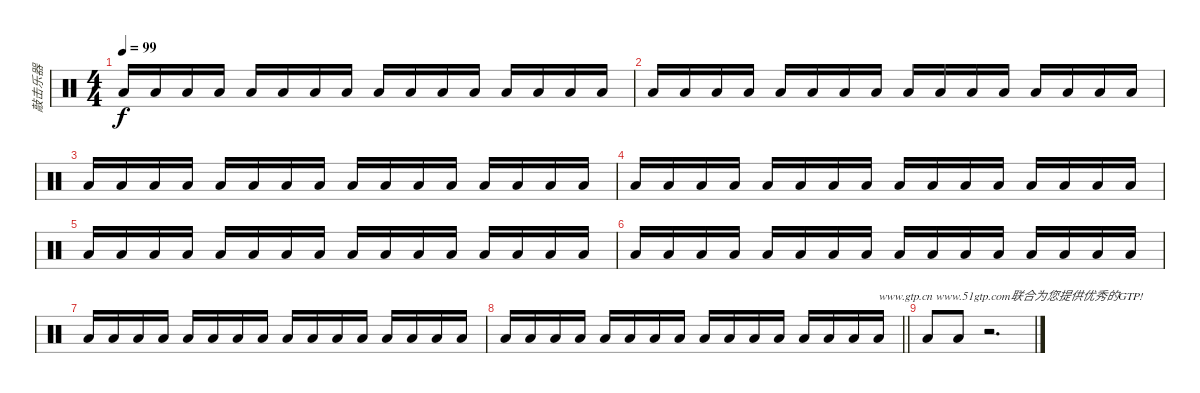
\track ("敲击乐器" "敲击乐器") {instrument percussion}
\staff {score}
\articulation defaults
\ts (4 4)
\tempo 99
\clef neutral
\ks c "Low Floor Tom (hit)".16{dy f} "Low Floor Tom (hit)".16 "Low Floor Tom (hit)".16 "Low Floor Tom (hit)".16 "Low Floor Tom (hit)".16 "Low Floor Tom (hit)".16 "Low Floor Tom (hit)".16 "Low Floor Tom (hit)".16 "Low Floor Tom (hit)".16 "Low Floor Tom (hit)".16 "Low Floor Tom (hit)".16 "Low Floor Tom (hit)".16 "Low Floor Tom (hit)".16 "Low Floor Tom (hit)".16 "Low Floor Tom (hit)".16 "Low Floor Tom (hit)".16
|
"Low Floor Tom (hit)".16 "Low Floor Tom (hit)".16 "Low Floor Tom (hit)".16 "Low Floor Tom (hit)".16 "Low Floor Tom (hit)".16 "Low Floor Tom (hit)".16 "Low Floor Tom (hit)".16 "Low Floor Tom (hit)".16 "Low Floor Tom (hit)".16 "Low Floor Tom (hit)".16 "Low Floor Tom (hit)".16 "Low Floor Tom (hit)".16 "Low Floor Tom (hit)".16 "Low Floor Tom (hit)".16 "Low Floor Tom (hit)".16 "Low Floor Tom (hit)".16 |
"Low Floor Tom (hit)".16 "Low Floor Tom (hit)".16 "Low Floor Tom (hit)".16 "Low Floor Tom (hit)".16 "Low Floor Tom (hit)".16 "Low Floor Tom (hit)".16 "Low Floor Tom (hit)".16 "Low Floor Tom (hit)".16 "Low Floor Tom (hit)".16 "Low Floor Tom (hit)".16 "Low Floor Tom (hit)".16 "Low Floor Tom (hit)".16 "Low Floor Tom (hit)".16 "Low Floor Tom (hit)".16 "Low Floor Tom (hit)".16 "Low Floor Tom (hit)".16 |
"Low Floor Tom (hit)".16 "Low Floor Tom (hit)".16 "Low Floor Tom (hit)".16 "Low Floor Tom (hit)".16 "Low Floor Tom (hit)".16 "Low Floor Tom (hit)".16 "Low Floor Tom (hit)".16 "Low Floor Tom (hit)".16 "Low Floor Tom (hit)".16 "Low Floor Tom (hit)".16 "Low Floor Tom (hit)".16 "Low Floor Tom (hit)".16 "Low Floor Tom (hit)".16 "Low Floor Tom (hit)".16 "Low Floor Tom (hit)".16 "Low Floor Tom (hit)".16 |
"Low Floor Tom (hit)".16 "Low Floor Tom (hit)".16 "Low Floor Tom (hit)".16 "Low Floor Tom (hit)".16 "Low Floor Tom (hit)".16 "Low Floor Tom (hit)".16 "Low Floor Tom (hit)".16 "Low Floor Tom (hit)".16 "Low Floor Tom (hit)".16 "Low Floor Tom (hit)".16 "Low Floor Tom (hit)".16 "Low Floor Tom (hit)".16 "Low Floor Tom (hit)".16 "Low Floor Tom (hit)".16 "Low Floor Tom (hit)".16 "Low Floor Tom (hit)".16 |
"Low Floor Tom (hit)".16 "Low Floor Tom (hit)".16 "Low Floor Tom (hit)".16 "Low Floor Tom (hit)".16 "Low Floor Tom (hit)".16 "Low Floor Tom (hit)".16 "Low Floor Tom (hit)".16 "Low Floor Tom (hit)".16 "Low Floor Tom (hit)".16 "Low Floor Tom (hit)".16 "Low Floor Tom (hit)".16 "Low Floor Tom (hit)".16 "Low Floor Tom (hit)".16 "Low Floor Tom (hit)".16 "Low Floor Tom (hit)".16 "Low Floor Tom (hit)".16 |
"Low Floor Tom (hit)".16 "Low Floor Tom (hit)".16 "Low Floor Tom (hit)".16 "Low Floor Tom (hit)".16 "Low Floor Tom (hit)".16 "Low Floor Tom (hit)".16 "Low Floor Tom (hit)".16 "Low Floor Tom (hit)".16 "Low Floor Tom (hit)".16 "Low Floor Tom (hit)".16 "Low Floor Tom (hit)".16 "Low Floor Tom (hit)".16 "Low Floor Tom (hit)".16 "Low Floor Tom (hit)".16 "Low Floor Tom (hit)".16 "Low Floor Tom (hit)".16 |
\barLineRight lightlight "Low Floor Tom (hit)".16 "Low Floor Tom (hit)".16 "Low Floor Tom (hit)".16 "Low Floor Tom (hit)".16 "Low Floor Tom (hit)".16 "Low Floor Tom (hit)".16 "Low Floor Tom (hit)".16 "Low Floor Tom (hit)".16 "Low Floor Tom (hit)".16 "Low Floor Tom (hit)".16 "Low Floor Tom (hit)".16 "Low Floor Tom (hit)".16 "Low Floor Tom (hit)".16 "Low Floor Tom (hit)".16 "Low Floor Tom (hit)".16 "Low Floor Tom (hit)".16{txt "www.gtp.cn www.51gtp.com联合为您提供优秀的GTP!"}
|
"Low Floor Tom (hit)".8 "Low Floor Tom (hit)".8 r.2{d}
